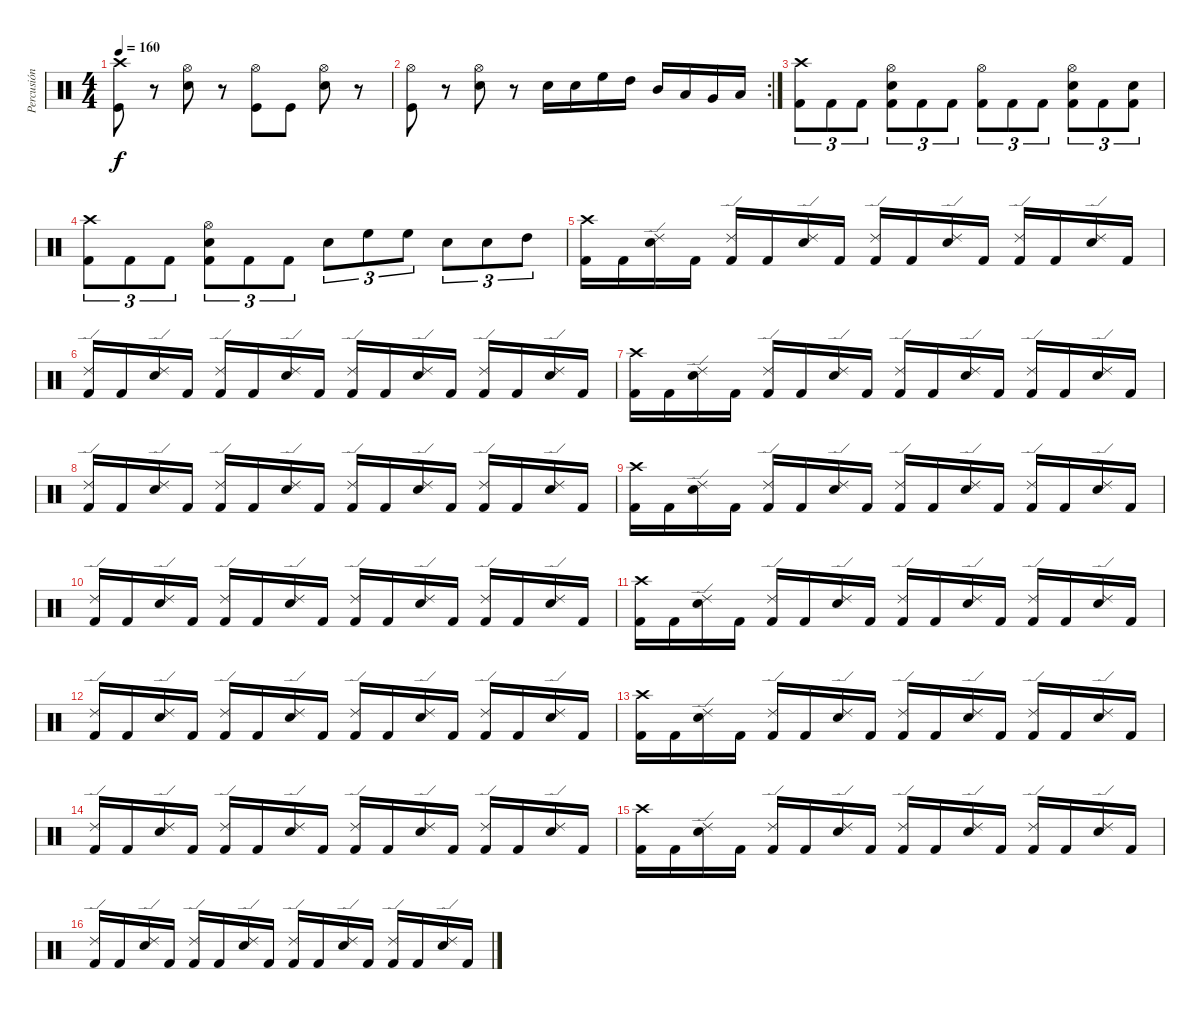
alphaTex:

\track ("Percusión" "Percusión") {instrument percussion}
\staff {score}
\articulation defaults
\ts (4 4)
\tempo 160
\clef neutral
\ks c
("Crash high (hit)" "Kick (hit)").8{dy f} r.8 ("Hi-Hat (open)" "Electric Snare (hit)").8 r.8 ("Hi-Hat (open)" "Kick (hit)").8 "Kick (hit)".8 ("Hi-Hat (open)" "Electric Snare (hit)").8 r.8 |
\rc 2
("Hi-Hat (open)" "Kick (hit)").8 r.8 ("Hi-Hat (open)" "Electric Snare (hit)").8 r.8 "Electric Snare (hit)".16 "Electric Snare (hit)".16 "High Floor Tom (hit)".16 "High Tom (hit)".16 "Mid Tom (hit)".16 "Low Tom (hit)".16 "Very Low Tom (hit)".16 "Low Floor Tom (hit)".16 |
("Crash high (hit)" "Kick (hit) 2").8{tu (3 2)} "Kick (hit) 2".8{tu (3 2)} "Kick (hit) 2".8{tu (3 2)} ("Hi-Hat (open)" "Electric Snare (hit)" "Kick (hit) 2").8{tu (3 2)} "Kick (hit) 2".8{tu (3 2)} "Kick (hit) 2".8{tu (3 2)} ("Hi-Hat (open)" "Kick (hit) 2").8{tu (3 2)} "Kick (hit) 2".8{tu (3 2)} "Kick (hit) 2".8{tu (3 2)} ("Hi-Hat (open)" "Electric Snare (hit)" "Kick (hit) 2").8{tu (3 2)} "Kick (hit) 2".8{tu (3 2)} ("Electric Snare (hit)" "Kick (hit) 2").8{tu (3 2)} |
("Crash high (hit)" "Kick (hit) 2").8{tu (3 2)} "Kick (hit) 2".8{tu (3 2)} "Kick (hit) 2".8{tu (3 2)} ("Hi-Hat (open)" "Electric Snare (hit)" "Kick (hit) 2").8{tu (3 2)} "Kick (hit) 2".8{tu (3 2)} "Kick (hit) 2".8{tu (3 2)} "Electric Snare (hit)".8{tu (3 2)} "High Floor Tom (hit)".8{tu (3 2)} "High Floor Tom (hit)".8{tu (3 2)} "Electric Snare (hit)".8{tu (3 2)} "Electric Snare (hit)".8{tu (3 2)} "High Tom (hit)".8{tu (3 2)} |
("Crash high (hit)" "Kick (hit) 2").16 "Kick (hit) 2".16 ("Ride (edge) 2" "Electric Snare (hit)").16 "Kick (hit) 2".16 ("Ride (edge) 2" "Kick (hit) 2").16 "Kick (hit) 2".16 ("Ride (edge) 2" "Electric Snare (hit)").16 "Kick (hit) 2".16 ("Ride (edge) 2" "Kick (hit) 2").16 "Kick (hit) 2".16 ("Ride (edge) 2" "Electric Snare (hit)").16 "Kick (hit) 2".16 ("Ride (edge) 2" "Kick (hit) 2").16 "Kick (hit) 2".16 ("Ride (edge) 2" "Electric Snare (hit)").16 "Kick (hit) 2".16 |
("Ride (edge) 2" "Kick (hit) 2").16 "Kick (hit) 2".16 ("Ride (edge) 2" "Electric Snare (hit)").16 "Kick (hit) 2".16 ("Ride (edge) 2" "Kick (hit) 2").16 "Kick (hit) 2".16 ("Ride (edge) 2" "Electric Snare (hit)").16 "Kick (hit) 2".16 ("Ride (edge) 2" "Kick (hit) 2").16 "Kick (hit) 2".16 ("Ride (edge) 2" "Electric Snare (hit)").16 "Kick (hit) 2".16 ("Ride (edge) 2" "Kick (hit) 2").16 "Kick (hit) 2".16 ("Ride (edge) 2" "Electric Snare (hit)").16 "Kick (hit) 2".16 |
("Crash high (hit)" "Kick (hit) 2").16 "Kick (hit) 2".16 ("Ride (edge) 2" "Electric Snare (hit)").16 "Kick (hit) 2".16 ("Ride (edge) 2" "Kick (hit) 2").16 "Kick (hit) 2".16 ("Ride (edge) 2" "Electric Snare (hit)").16 "Kick (hit) 2".16 ("Ride (edge) 2" "Kick (hit) 2").16 "Kick (hit) 2".16 ("Ride (edge) 2" "Electric Snare (hit)").16 "Kick (hit) 2".16 ("Ride (edge) 2" "Kick (hit) 2").16 "Kick (hit) 2".16 ("Ride (edge) 2" "Electric Snare (hit)").16 "Kick (hit) 2".16 |
("Ride (edge) 2" "Kick (hit) 2").16 "Kick (hit) 2".16 ("Ride (edge) 2" "Electric Snare (hit)").16 "Kick (hit) 2".16 ("Ride (edge) 2" "Kick (hit) 2").16 "Kick (hit) 2".16 ("Ride (edge) 2" "Electric Snare (hit)").16 "Kick (hit) 2".16 ("Ride (edge) 2" "Kick (hit) 2").16 "Kick (hit) 2".16 ("Ride (edge) 2" "Electric Snare (hit)").16 "Kick (hit) 2".16 ("Ride (edge) 2" "Kick (hit) 2").16 "Kick (hit) 2".16 ("Ride (edge) 2" "Electric Snare (hit)").16 "Kick (hit) 2".16 |
("Crash high (hit)" "Kick (hit) 2").16 "Kick (hit) 2".16 ("Ride (edge) 2" "Electric Snare (hit)").16 "Kick (hit) 2".16 ("Ride (edge) 2" "Kick (hit) 2").16 "Kick (hit) 2".16 ("Ride (edge) 2" "Electric Snare (hit)").16 "Kick (hit) 2".16 ("Ride (edge) 2" "Kick (hit) 2").16 "Kick (hit) 2".16 ("Ride (edge) 2" "Electric Snare (hit)").16 "Kick (hit) 2".16 ("Ride (edge) 2" "Kick (hit) 2").16 "Kick (hit) 2".16 ("Ride (edge) 2" "Electric Snare (hit)").16 "Kick (hit) 2".16 |
("Ride (edge) 2" "Kick (hit) 2").16 "Kick (hit) 2".16 ("Ride (edge) 2" "Electric Snare (hit)").16 "Kick (hit) 2".16 ("Ride (edge) 2" "Kick (hit) 2").16 "Kick (hit) 2".16 ("Ride (edge) 2" "Electric Snare (hit)").16 "Kick (hit) 2".16 ("Ride (edge) 2" "Kick (hit) 2").16 "Kick (hit) 2".16 ("Ride (edge) 2" "Electric Snare (hit)").16 "Kick (hit) 2".16 ("Ride (edge) 2" "Kick (hit) 2").16 "Kick (hit) 2".16 ("Ride (edge) 2" "Electric Snare (hit)").16 "Kick (hit) 2".16 |
("Crash high (hit)" "Kick (hit) 2").16 "Kick (hit) 2".16 ("Ride (edge) 2" "Electric Snare (hit)").16 "Kick (hit) 2".16 ("Ride (edge) 2" "Kick (hit) 2").16 "Kick (hit) 2".16 ("Ride (edge) 2" "Electric Snare (hit)").16 "Kick (hit) 2".16 ("Ride (edge) 2" "Kick (hit) 2").16 "Kick (hit) 2".16 ("Ride (edge) 2" "Electric Snare (hit)").16 "Kick (hit) 2".16 ("Ride (edge) 2" "Kick (hit) 2").16 "Kick (hit) 2".16 ("Ride (edge) 2" "Electric Snare (hit)").16 "Kick (hit) 2".16 |
("Ride (edge) 2" "Kick (hit) 2").16 "Kick (hit) 2".16 ("Ride (edge) 2" "Electric Snare (hit)").16 "Kick (hit) 2".16 ("Ride (edge) 2" "Kick (hit) 2").16 "Kick (hit) 2".16 ("Ride (edge) 2" "Electric Snare (hit)").16 "Kick (hit) 2".16 ("Ride (edge) 2" "Kick (hit) 2").16 "Kick (hit) 2".16 ("Ride (edge) 2" "Electric Snare (hit)").16 "Kick (hit) 2".16 ("Ride (edge) 2" "Kick (hit) 2").16 "Kick (hit) 2".16 ("Ride (edge) 2" "Electric Snare (hit)").16 "Kick (hit) 2".16 |
("Crash high (hit)" "Kick (hit) 2").16 "Kick (hit) 2".16 ("Ride (edge) 2" "Electric Snare (hit)").16 "Kick (hit) 2".16 ("Ride (edge) 2" "Kick (hit) 2").16 "Kick (hit) 2".16 ("Ride (edge) 2" "Electric Snare (hit)").16 "Kick (hit) 2".16 ("Ride (edge) 2" "Kick (hit) 2").16 "Kick (hit) 2".16 ("Ride (edge) 2" "Electric Snare (hit)").16 "Kick (hit) 2".16 ("Ride (edge) 2" "Kick (hit) 2").16 "Kick (hit) 2".16 ("Ride (edge) 2" "Electric Snare (hit)").16 "Kick (hit) 2".16 |
("Ride (edge) 2" "Kick (hit) 2").16 "Kick (hit) 2".16 ("Ride (edge) 2" "Electric Snare (hit)").16 "Kick (hit) 2".16 ("Ride (edge) 2" "Kick (hit) 2").16 "Kick (hit) 2".16 ("Ride (edge) 2" "Electric Snare (hit)").16 "Kick (hit) 2".16 ("Ride (edge) 2" "Kick (hit) 2").16 "Kick (hit) 2".16 ("Ride (edge) 2" "Electric Snare (hit)").16 "Kick (hit) 2".16 ("Ride (edge) 2" "Kick (hit) 2").16 "Kick (hit) 2".16 ("Ride (edge) 2" "Electric Snare (hit)").16 "Kick (hit) 2".16 |
("Crash high (hit)" "Kick (hit) 2").16 "Kick (hit) 2".16 ("Ride (edge) 2" "Electric Snare (hit)").16 "Kick (hit) 2".16 ("Ride (edge) 2" "Kick (hit) 2").16 "Kick (hit) 2".16 ("Ride (edge) 2" "Electric Snare (hit)").16 "Kick (hit) 2".16 ("Ride (edge) 2" "Kick (hit) 2").16 "Kick (hit) 2".16 ("Ride (edge) 2" "Electric Snare (hit)").16 "Kick (hit) 2".16 ("Ride (edge) 2" "Kick (hit) 2").16 "Kick (hit) 2".16 ("Ride (edge) 2" "Electric Snare (hit)").16 "Kick (hit) 2".16 |
("Ride (edge) 2" "Kick (hit) 2").16 "Kick (hit) 2".16 ("Ride (edge) 2" "Electric Snare (hit)").16 "Kick (hit) 2".16 ("Ride (edge) 2" "Kick (hit) 2").16 "Kick (hit) 2".16 ("Ride (edge) 2" "Electric Snare (hit)").16 "Kick (hit) 2".16 ("Ride (edge) 2" "Kick (hit) 2").16 "Kick (hit) 2".16 ("Ride (edge) 2" "Electric Snare (hit)").16 "Kick (hit) 2".16 ("Ride (edge) 2" "Kick (hit) 2").16 "Kick (hit) 2".16 ("Ride (edge) 2" "Electric Snare (hit)").16 "Kick (hit) 2".16
